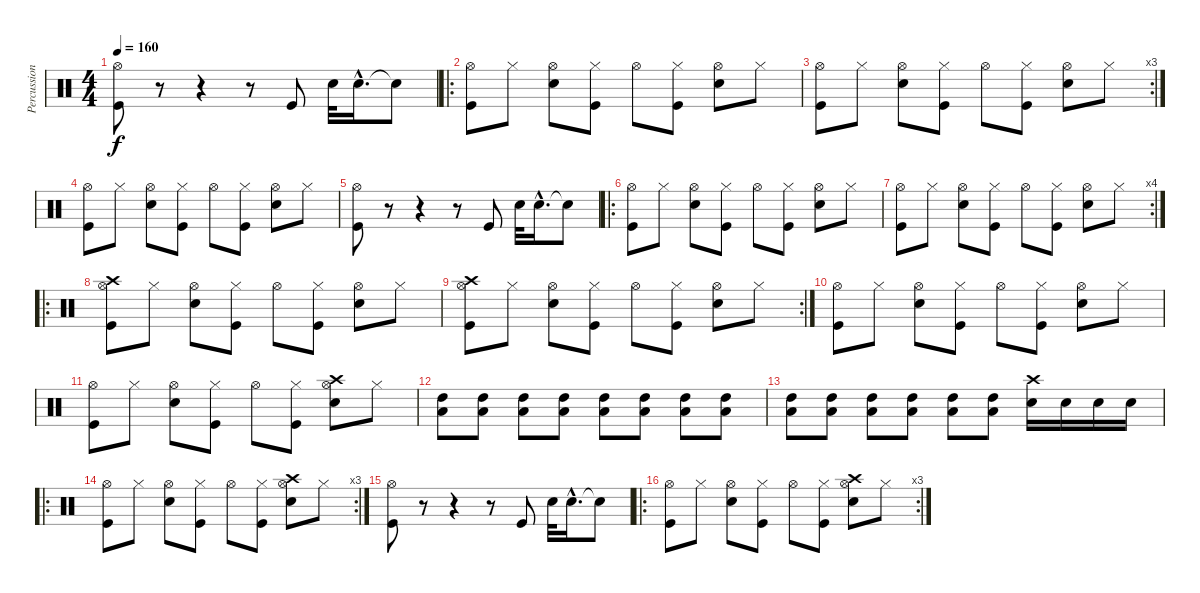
\track ("Percussions" "Percussion") {instrument percussion}
\staff {score}
\articulation defaults
\ts (4 4)
\tempo 160
\clef neutral
\ks c
("Hi-Hat (open)" "Kick (hit)").8{dy f} r.8 r.4 r.8 "Kick (hit)".8 "Snare (hit) 2".32 "Snare (hit) 2"{hac}.16{d} "Snare (hit)"{t}.8 |
\ro
("Hi-Hat (open)" "Kick (hit)").8 "Hi-Hat (closed)".8 ("Hi-Hat (open)" "Snare (hit) 2").8 ("Hi-Hat (closed)" "Kick (hit)").8 "Hi-Hat (open)".8 ("Hi-Hat (closed)" "Kick (hit)").8 ("Hi-Hat (open)" "Snare (hit) 2").8 "Hi-Hat (closed)".8 |
\rc 3
("Hi-Hat (open)" "Kick (hit)").8 "Hi-Hat (closed)".8 ("Hi-Hat (open)" "Snare (hit) 2").8 ("Hi-Hat (closed)" "Kick (hit)").8 "Hi-Hat (open)".8 ("Hi-Hat (closed)" "Kick (hit)").8 ("Hi-Hat (open)" "Snare (hit) 2").8 "Hi-Hat (closed)".8 |
("Hi-Hat (open)" "Kick (hit)").8 "Hi-Hat (closed)".8 ("Hi-Hat (open)" "Snare (hit) 2").8 ("Hi-Hat (closed)" "Kick (hit)").8 "Hi-Hat (open)".8 ("Hi-Hat (closed)" "Kick (hit)").8 ("Hi-Hat (open)" "Snare (hit) 2").8 "Hi-Hat (closed)".8 |
("Hi-Hat (open)" "Kick (hit)").8 r.8 r.4 r.8 "Kick (hit)".8 "Snare (hit) 2".32 "Snare (hit) 2"{hac}.16{d} "Snare (hit)"{t}.8 |
\ro
("Hi-Hat (open)" "Kick (hit)").8 "Hi-Hat (closed)".8 ("Hi-Hat (open)" "Snare (hit) 2").8 ("Hi-Hat (closed)" "Kick (hit)").8 "Hi-Hat (open)".8 ("Hi-Hat (closed)" "Kick (hit)").8 ("Hi-Hat (open)" "Snare (hit) 2").8 "Hi-Hat (closed)".8 |
\rc 4
("Hi-Hat (open)" "Kick (hit)").8 "Hi-Hat (closed)".8 ("Hi-Hat (open)" "Snare (hit) 2").8 ("Hi-Hat (closed)" "Kick (hit)").8 "Hi-Hat (open)".8 ("Hi-Hat (closed)" "Kick (hit)").8 ("Hi-Hat (open)" "Snare (hit) 2").8 "Hi-Hat (closed)".8 |
\ro
("Hi-Hat (open)" "Kick (hit)" "Crash high (hit)").8 "Hi-Hat (closed)".8 ("Hi-Hat (open)" "Snare (hit) 2").8 ("Hi-Hat (closed)" "Kick (hit)").8 "Hi-Hat (open)".8 ("Hi-Hat (closed)" "Kick (hit)").8 ("Hi-Hat (open)" "Snare (hit) 2").8 "Hi-Hat (closed)".8 |
\rc 2
("Hi-Hat (open)" "Kick (hit)" "Crash high (hit)").8 "Hi-Hat (closed)".8 ("Hi-Hat (open)" "Snare (hit) 2").8 ("Hi-Hat (closed)" "Kick (hit)").8 "Hi-Hat (open)".8 ("Hi-Hat (closed)" "Kick (hit)").8 ("Hi-Hat (open)" "Snare (hit) 2").8 "Hi-Hat (closed)".8 |
("Hi-Hat (open)" "Kick (hit)").8 "Hi-Hat (closed)".8 ("Hi-Hat (open)" "Snare (hit) 2").8 ("Hi-Hat (closed)" "Kick (hit)").8 "Hi-Hat (open)".8 ("Hi-Hat (closed)" "Kick (hit)").8 ("Hi-Hat (open)" "Snare (hit) 2").8 "Hi-Hat (closed)".8 |
("Hi-Hat (open)" "Kick (hit)").8 "Hi-Hat (closed)".8 ("Hi-Hat (open)" "Snare (hit) 2").8 ("Hi-Hat (closed)" "Kick (hit)").8 "Hi-Hat (open)".8 ("Hi-Hat (closed)" "Kick (hit)").8 ("Hi-Hat (open)" "Snare (hit) 2" "Crash high (hit)").8 "Hi-Hat (closed)".8 |
("Low Floor Tom (hit)" "High Tom (hit)").8 ("Low Floor Tom (hit)" "High Tom (hit)").8 ("Low Floor Tom (hit)" "High Tom (hit)").8 ("Low Floor Tom (hit)" "High Tom (hit)").8 ("Low Floor Tom (hit)" "High Tom (hit)").8 ("Low Floor Tom (hit)" "High Tom (hit)").8 ("Low Floor Tom (hit)" "High Tom (hit)").8 ("Low Floor Tom (hit)" "High Tom (hit)").8 |
("Low Floor Tom (hit)" "High Tom (hit)").8 ("Low Floor Tom (hit)" "High Tom (hit)").8 ("Low Floor Tom (hit)" "High Tom (hit)").8 ("Low Floor Tom (hit)" "High Tom (hit)").8 ("Low Floor Tom (hit)" "High Tom (hit)").8 ("Low Floor Tom (hit)" "High Tom (hit)").8 ("Snare (hit) 2" "Crash high (hit)").16 "Snare (hit) 2".16 "Snare (hit) 2".16 "Snare (hit) 2".16 |
\ro
\rc 3
("Hi-Hat (open)" "Kick (hit)").8 "Hi-Hat (closed)".8 ("Hi-Hat (open)" "Snare (hit) 2").8 ("Hi-Hat (closed)" "Kick (hit)").8 "Hi-Hat (open)".8 ("Hi-Hat (closed)" "Kick (hit)").8 ("Hi-Hat (open)" "Snare (hit) 2" "Crash high (hit)").8 "Hi-Hat (closed)".8 |
("Hi-Hat (open)" "Kick (hit)").8 r.8 r.4 r.8 "Kick (hit)".8 "Snare (hit) 2".32 "Snare (hit) 2"{hac}.16{d} "Snare (hit)"{t}.8 |
\ro
\rc 3
("Hi-Hat (open)" "Kick (hit)").8 "Hi-Hat (closed)".8 ("Hi-Hat (open)" "Snare (hit) 2").8 ("Hi-Hat (closed)" "Kick (hit)").8 "Hi-Hat (open)".8 ("Hi-Hat (closed)" "Kick (hit)").8 ("Hi-Hat (open)" "Snare (hit) 2" "Crash high (hit)").8 "Hi-Hat (closed)".8
